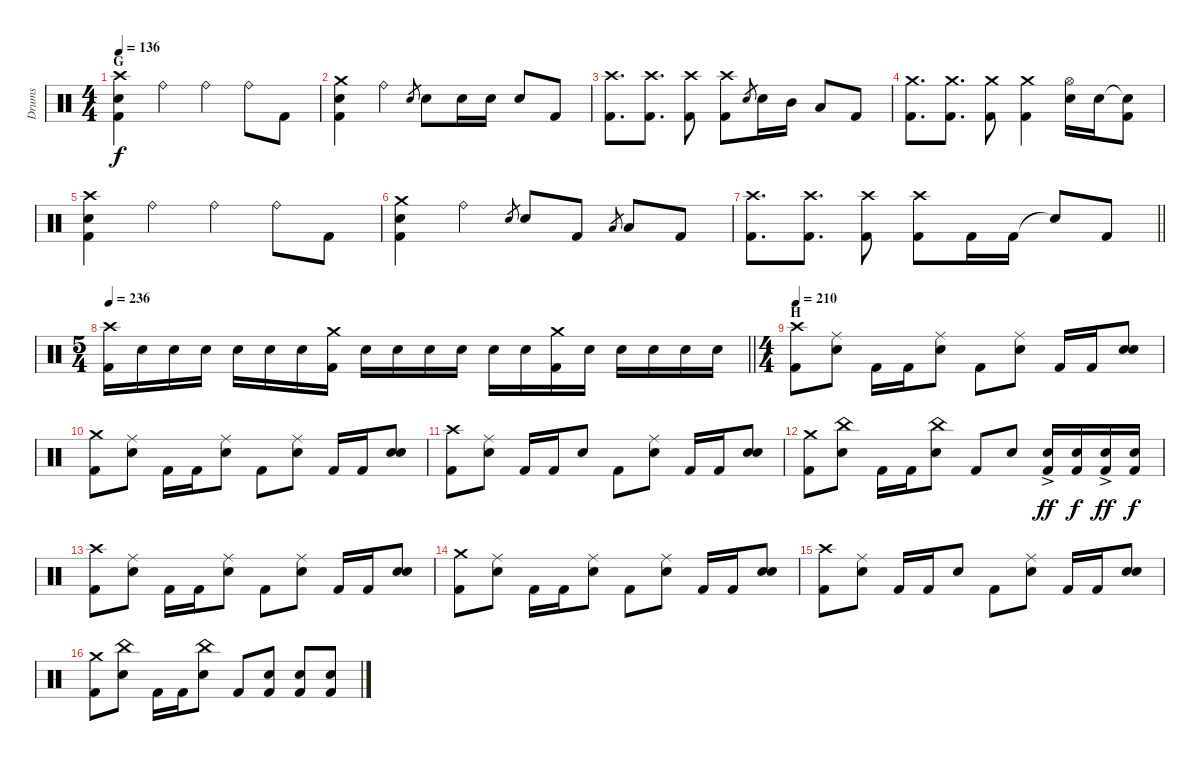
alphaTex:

\track ("Drums" "Drums") {instrument percussion}
\staff {score}
\articulation defaults
\ts (4 4)
\section ("" "G")
\tempo 136
\clef neutral
\ks c
("Crash high (hit)" "Electric Snare (hit)" "Kick (hit) 2").4{dy f} "Ride (bell)".4 "Ride (bell)".4 "Ride (bell)".8 "Kick (hit) 2".8 |
("Crash medium (hit)" "Electric Snare (hit)" "Kick (hit) 2").4 "Ride (bell)".4 "Electric Snare (hit)".8{gr} "Electric Snare (hit)".8 "Electric Snare (hit)".16 "Electric Snare (hit)".16 "Electric Snare (hit)".8 "Kick (hit) 2".8 |
("Crash high (hit)" "Kick (hit) 2").8{d} ("Crash high (hit)" "Kick (hit) 2").8{d} ("Crash high (hit)" "Kick (hit) 2").8 ("Crash high (hit)" "Kick (hit) 2").8 "Electric Snare (hit)".8{gr} "Electric Snare (hit)".16 "Mid Tom (hit)".16 "Low Tom (hit)".8 "Kick (hit) 2".8 |
("Crash medium (hit)" "Kick (hit) 2").8{d} ("Crash medium (hit)" "Kick (hit) 2").8{d} ("Crash medium (hit)" "Kick (hit) 2").8 ("Crash medium (hit)" "Kick (hit) 2").4 ("Hi-Hat (open)" "Electric Snare (hit)").16 "Electric Snare (hit)".16 ("Snare (hit)"{t} "Kick (hit) 2").8 |
("Crash high (hit)" "Electric Snare (hit)" "Kick (hit) 2").4 "Ride (bell)".4 "Ride (bell)".4 "Ride (bell)".8 "Kick (hit) 2".8 |
("Crash medium (hit)" "Electric Snare (hit)" "Kick (hit) 2").4 "Ride (bell)".4 "Electric Snare (hit)".8{gr} "Electric Snare (hit)".8 "Kick (hit) 2".8 "Low Tom (hit)".8{gr} "Low Tom (hit)".8 "Kick (hit) 2".8 |
\barLineRight lightlight
("Crash high (hit)" "Kick (hit) 2").8{d} ("Crash high (hit)" "Kick (hit) 2").8{d} ("Crash high (hit)" "Kick (hit) 2").8 ("Crash high (hit)" "Kick (hit) 2").8 "Kick (hit) 2".16 "Kick (hit) 2".16 "Snare (hit)"{t}.8 "Kick (hit) 2".8 |
\ts (5 4)
\section ("" "")
\tempo 236
\barLineRight lightlight
("Crash high (hit)" "Kick (hit) 2").16 "Electric Snare (hit)".16 "Electric Snare (hit)".16 "Electric Snare (hit)".16 "Electric Snare (hit)".16 "Electric Snare (hit)".16 "Electric Snare (hit)".16 ("Crash medium (hit)" "Kick (hit) 2").16 "Electric Snare (hit)".16 "Electric Snare (hit)".16 "Electric Snare (hit)".16 "Electric Snare (hit)".16 "Electric Snare (hit)".16 "Electric Snare (hit)".16 ("Crash medium (hit)" "Kick (hit) 2").16 "Electric Snare (hit)".16 "Electric Snare (hit)".16 "Electric Snare (hit)".16 "Electric Snare (hit)".16 "Electric Snare (hit)".16 |
\ts (4 4)
\section ("" "H")
\tempo 210
("Crash high (hit)" "Kick (hit) 2").8 ("Ride (middle)" "Electric Snare (hit)").8 "Kick (hit) 2".16 "Kick (hit) 2".16 ("Ride (middle)" "Electric Snare (hit)").8 "Kick (hit) 2".8 ("Ride (middle)" "Electric Snare (hit)").8 "Kick (hit) 2".16 "Kick (hit) 2".16 ("Electric Snare (hit)" "Electric Snare (hit)").8 |
("Crash medium (hit)" "Kick (hit) 2").8 ("Ride (middle)" "Electric Snare (hit)").8 "Kick (hit) 2".16 "Kick (hit) 2".16 ("Ride (middle)" "Electric Snare (hit)").8 "Kick (hit) 2".8 ("Ride (middle)" "Electric Snare (hit)").8 "Kick (hit) 2".16 "Kick (hit) 2".16 ("Electric Snare (hit)" "Electric Snare (hit)").8 |
("Crash high (hit)" "Kick (hit) 2").8 ("Ride (middle)" "Electric Snare (hit)").8 "Kick (hit) 2".16 "Kick (hit) 2".16 "Electric Snare (hit)".8 "Kick (hit) 2".8 ("Ride (middle)" "Electric Snare (hit)").8 "Kick (hit) 2".16 "Kick (hit) 2".16 ("Electric Snare (hit)" "Electric Snare (hit)").8 |
("Crash medium (hit)" "Kick (hit) 2").8 ("China (hit)" "Electric Snare (hit)").8 "Kick (hit) 2".16 "Kick (hit) 2".16 ("China (hit)" "Electric Snare (hit)").8 "Kick (hit) 2".8 "Electric Snare (hit)".8 ("Electric Snare (hit)"{ac} "Kick (hit) 2").16{dy ff} ("Electric Snare (hit)" "Kick (hit) 2").16{dy f} ("Electric Snare (hit)"{ac} "Kick (hit) 2").16{dy ff} ("Electric Snare (hit)" "Kick (hit) 2").16{dy f} |
("Crash high (hit)" "Kick (hit) 2").8 ("Ride (middle)" "Electric Snare (hit)").8 "Kick (hit) 2".16 "Kick (hit) 2".16 ("Ride (middle)" "Electric Snare (hit)").8 "Kick (hit) 2".8 ("Ride (middle)" "Electric Snare (hit)").8 "Kick (hit) 2".16 "Kick (hit) 2".16 ("Electric Snare (hit)" "Electric Snare (hit)").8 |
("Crash medium (hit)" "Kick (hit) 2").8 ("Ride (middle)" "Electric Snare (hit)").8 "Kick (hit) 2".16 "Kick (hit) 2".16 ("Ride (middle)" "Electric Snare (hit)").8 "Kick (hit) 2".8 ("Ride (middle)" "Electric Snare (hit)").8 "Kick (hit) 2".16 "Kick (hit) 2".16 ("Electric Snare (hit)" "Electric Snare (hit)").8 |
("Crash high (hit)" "Kick (hit) 2").8 ("Ride (middle)" "Electric Snare (hit)").8 "Kick (hit) 2".16 "Kick (hit) 2".16 "Electric Snare (hit)".8 "Kick (hit) 2".8 ("Ride (middle)" "Electric Snare (hit)").8 "Kick (hit) 2".16 "Kick (hit) 2".16 ("Electric Snare (hit)" "Electric Snare (hit)").8 |
("Crash medium (hit)" "Kick (hit) 2").8 ("China (hit)" "Electric Snare (hit)").8 "Kick (hit) 2".16 "Kick (hit) 2".16 ("China (hit)" "Electric Snare (hit)").8 "Kick (hit) 2".8 ("Electric Snare (hit)" "Kick (hit) 2").8 ("Electric Snare (hit)" "Kick (hit) 2").8 ("Electric Snare (hit)" "Kick (hit) 2").8
